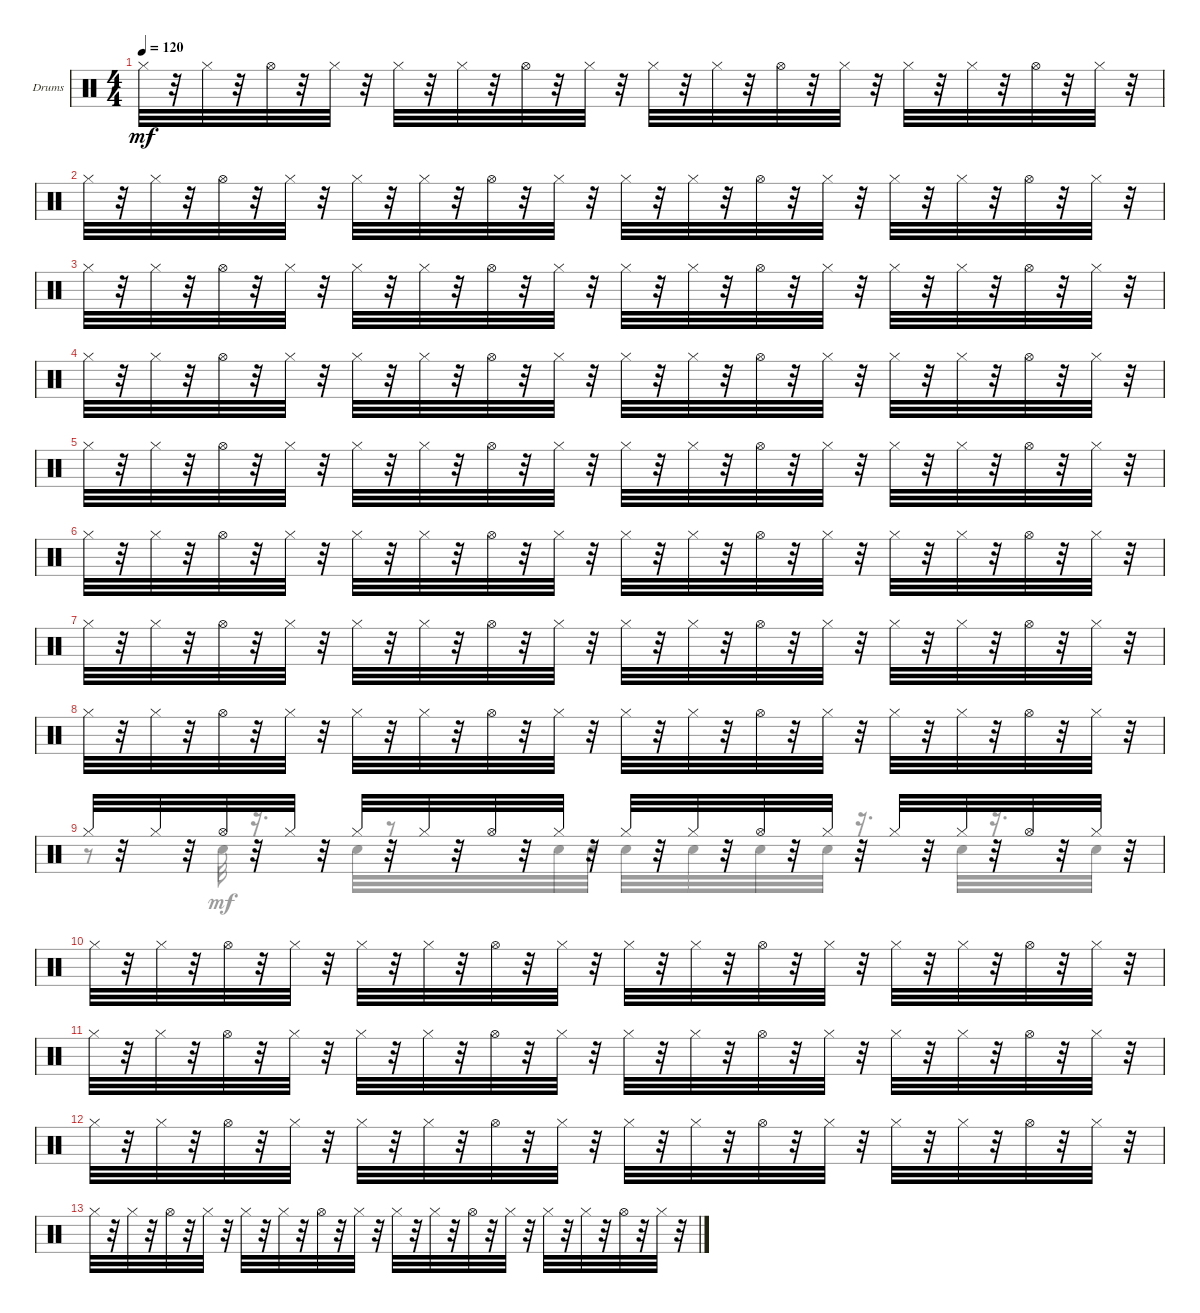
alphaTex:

\defaultSystemsLayout 4
\bracketExtendMode nobrackets
\firstSystemTrackNameOrientation horizontal
\otherSystemsTrackNameOrientation horizontal
\track ("Drumkit" "Drums") {instrument percussion}
\staff {score}
\articulation defaults
\voice
\ts (4 4)
\tempo 120
\clef neutral
\ks c "Hi-Hat (closed)".32{dy mf}
r.32 "Hi-Hat (closed)".32 r.32 "Hi-Hat (open)".32 r.32 "Hi-Hat (closed)".32 r.32 "Hi-Hat (closed)".32 r.32 "Hi-Hat (closed)".32 r.32 "Hi-Hat (open)".32 r.32 "Hi-Hat (closed)".32 r.32 "Hi-Hat (closed)".32 r.32 "Hi-Hat (closed)".32 r.32 "Hi-Hat (open)".32 r.32 "Hi-Hat (closed)".32 r.32 "Hi-Hat (closed)".32 r.32 "Hi-Hat (closed)".32 r.32 "Hi-Hat (open)".32 r.32 "Hi-Hat (closed)".32 r.32 |
"Hi-Hat (closed)".32 r.32 "Hi-Hat (closed)".32 r.32 "Hi-Hat (open)".32 r.32 "Hi-Hat (closed)".32 r.32 "Hi-Hat (closed)".32 r.32 "Hi-Hat (closed)".32 r.32 "Hi-Hat (open)".32 r.32 "Hi-Hat (closed)".32 r.32 "Hi-Hat (closed)".32 r.32 "Hi-Hat (closed)".32 r.32 "Hi-Hat (open)".32 r.32 "Hi-Hat (closed)".32 r.32 "Hi-Hat (closed)".32 r.32 "Hi-Hat (closed)".32 r.32 "Hi-Hat (open)".32 r.32 "Hi-Hat (closed)".32 r.32 |
"Hi-Hat (closed)".32 r.32 "Hi-Hat (closed)".32 r.32 "Hi-Hat (open)".32 r.32 "Hi-Hat (closed)".32 r.32 "Hi-Hat (closed)".32 r.32 "Hi-Hat (closed)".32 r.32 "Hi-Hat (open)".32 r.32 "Hi-Hat (closed)".32 r.32 "Hi-Hat (closed)".32 r.32 "Hi-Hat (closed)".32 r.32 "Hi-Hat (open)".32 r.32 "Hi-Hat (closed)".32 r.32 "Hi-Hat (closed)".32 r.32 "Hi-Hat (closed)".32 r.32 "Hi-Hat (open)".32 r.32 "Hi-Hat (closed)".32 r.32 |
"Hi-Hat (closed)".32 r.32 "Hi-Hat (closed)".32 r.32 "Hi-Hat (open)".32 r.32 "Hi-Hat (closed)".32 r.32 "Hi-Hat (closed)".32 r.32 "Hi-Hat (closed)".32 r.32 "Hi-Hat (open)".32 r.32 "Hi-Hat (closed)".32 r.32 "Hi-Hat (closed)".32 r.32 "Hi-Hat (closed)".32 r.32 "Hi-Hat (open)".32 r.32 "Hi-Hat (closed)".32 r.32 "Hi-Hat (closed)".32 r.32 "Hi-Hat (closed)".32 r.32 "Hi-Hat (open)".32 r.32 "Hi-Hat (closed)".32 r.32 |
"Hi-Hat (closed)".32 r.32 "Hi-Hat (closed)".32 r.32 "Hi-Hat (open)".32 r.32 "Hi-Hat (closed)".32 r.32 "Hi-Hat (closed)".32 r.32 "Hi-Hat (closed)".32 r.32 "Hi-Hat (open)".32 r.32 "Hi-Hat (closed)".32 r.32 "Hi-Hat (closed)".32 r.32 "Hi-Hat (closed)".32 r.32 "Hi-Hat (open)".32 r.32 "Hi-Hat (closed)".32 r.32 "Hi-Hat (closed)".32 r.32 "Hi-Hat (closed)".32 r.32 "Hi-Hat (open)".32 r.32 "Hi-Hat (closed)".32 r.32 |
"Hi-Hat (closed)".32 r.32 "Hi-Hat (closed)".32 r.32 "Hi-Hat (open)".32 r.32 "Hi-Hat (closed)".32 r.32 "Hi-Hat (closed)".32 r.32 "Hi-Hat (closed)".32 r.32 "Hi-Hat (open)".32 r.32 "Hi-Hat (closed)".32 r.32 "Hi-Hat (closed)".32 r.32 "Hi-Hat (closed)".32 r.32 "Hi-Hat (open)".32 r.32 "Hi-Hat (closed)".32 r.32 "Hi-Hat (closed)".32 r.32 "Hi-Hat (closed)".32 r.32 "Hi-Hat (open)".32 r.32 "Hi-Hat (closed)".32 r.32 |
"Hi-Hat (closed)".32 r.32 "Hi-Hat (closed)".32 r.32 "Hi-Hat (open)".32 r.32 "Hi-Hat (closed)".32 r.32 "Hi-Hat (closed)".32 r.32 "Hi-Hat (closed)".32 r.32 "Hi-Hat (open)".32 r.32 "Hi-Hat (closed)".32 r.32 "Hi-Hat (closed)".32 r.32 "Hi-Hat (closed)".32 r.32 "Hi-Hat (open)".32 r.32 "Hi-Hat (closed)".32 r.32 "Hi-Hat (closed)".32 r.32 "Hi-Hat (closed)".32 r.32 "Hi-Hat (open)".32 r.32 "Hi-Hat (closed)".32 r.32 |
"Hi-Hat (closed)".32 r.32 "Hi-Hat (closed)".32 r.32 "Hi-Hat (open)".32 r.32 "Hi-Hat (closed)".32 r.32 "Hi-Hat (closed)".32 r.32 "Hi-Hat (closed)".32 r.32 "Hi-Hat (open)".32 r.32 "Hi-Hat (closed)".32 r.32 "Hi-Hat (closed)".32 r.32 "Hi-Hat (closed)".32 r.32 "Hi-Hat (open)".32 r.32 "Hi-Hat (closed)".32 r.32 "Hi-Hat (closed)".32 r.32 "Hi-Hat (closed)".32 r.32 "Hi-Hat (open)".32 r.32 "Hi-Hat (closed)".32 r.32 |
"Hi-Hat (closed)".32 r.32 "Hi-Hat (closed)".32 r.32 "Hi-Hat (open)".32 r.32 "Hi-Hat (closed)".32 r.32 "Hi-Hat (closed)".32 r.32 "Hi-Hat (closed)".32 r.32 "Hi-Hat (open)".32 r.32 "Hi-Hat (closed)".32 r.32 "Hi-Hat (closed)".32 r.32 "Hi-Hat (closed)".32 r.32 "Hi-Hat (open)".32 r.32 "Hi-Hat (closed)".32 r.32 "Hi-Hat (closed)".32 r.32 "Hi-Hat (closed)".32 r.32 "Hi-Hat (open)".32 r.32 "Hi-Hat (closed)".32 r.32 |
"Hi-Hat (closed)".32 r.32 "Hi-Hat (closed)".32 r.32 "Hi-Hat (open)".32 r.32 "Hi-Hat (closed)".32 r.32 "Hi-Hat (closed)".32 r.32 "Hi-Hat (closed)".32 r.32 "Hi-Hat (open)".32 r.32 "Hi-Hat (closed)".32 r.32 "Hi-Hat (closed)".32 r.32 "Hi-Hat (closed)".32 r.32 "Hi-Hat (open)".32 r.32 "Hi-Hat (closed)".32 r.32 "Hi-Hat (closed)".32 r.32 "Hi-Hat (closed)".32 r.32 "Hi-Hat (open)".32 r.32 "Hi-Hat (closed)".32 r.32 |
"Hi-Hat (closed)".32 r.32 "Hi-Hat (closed)".32 r.32 "Hi-Hat (open)".32 r.32 "Hi-Hat (closed)".32 r.32 "Hi-Hat (closed)".32 r.32 "Hi-Hat (closed)".32 r.32 "Hi-Hat (open)".32 r.32 "Hi-Hat (closed)".32 r.32 "Hi-Hat (closed)".32 r.32 "Hi-Hat (closed)".32 r.32 "Hi-Hat (open)".32 r.32 "Hi-Hat (closed)".32 r.32 "Hi-Hat (closed)".32 r.32 "Hi-Hat (closed)".32 r.32 "Hi-Hat (open)".32 r.32 "Hi-Hat (closed)".32 r.32 |
"Hi-Hat (closed)".32 r.32 "Hi-Hat (closed)".32 r.32 "Hi-Hat (open)".32 r.32 "Hi-Hat (closed)".32 r.32 "Hi-Hat (closed)".32 r.32 "Hi-Hat (closed)".32 r.32 "Hi-Hat (open)".32 r.32 "Hi-Hat (closed)".32 r.32 "Hi-Hat (closed)".32 r.32 "Hi-Hat (closed)".32 r.32 "Hi-Hat (open)".32 r.32 "Hi-Hat (closed)".32 r.32 "Hi-Hat (closed)".32 r.32 "Hi-Hat (closed)".32 r.32 "Hi-Hat (open)".32 r.32 "Hi-Hat (closed)".32 r.32 |
"Hi-Hat (closed)".32 r.32 "Hi-Hat (closed)".32 r.32 "Hi-Hat (open)".32 r.32 "Hi-Hat (closed)".32 r.32 "Hi-Hat (closed)".32 r.32 "Hi-Hat (closed)".32 r.32 "Hi-Hat (open)".32 r.32 "Hi-Hat (closed)".32 r.32 "Hi-Hat (closed)".32 r.32 "Hi-Hat (closed)".32 r.32 "Hi-Hat (open)".32 r.32 "Hi-Hat (closed)".32 r.32 "Hi-Hat (closed)".32 r.32 "Hi-Hat (closed)".32 r.32 "Hi-Hat (open)".32 r.32 "Hi-Hat (closed)".32 r.32
\voice
\clef neutral
\ottava regular
\simile none
\ks c
|
|
|
|
|
|
|
|
r.8 "Snare (hit) 2".32 r.16{d} "Snare (hit) 2".32 r.8 r.32 "Snare (hit) 2".32 "Snare (hit) 2".32 "Snare (hit) 2".32 r.32 "Snare (hit) 2".32 r.32 "Snare (hit) 2".32 r.32 "Snare (hit) 2".32 r.16{d} "Snare (hit) 2".32 r.16{d} "Snare (hit) 2".32 r.32 |
|
|
|
